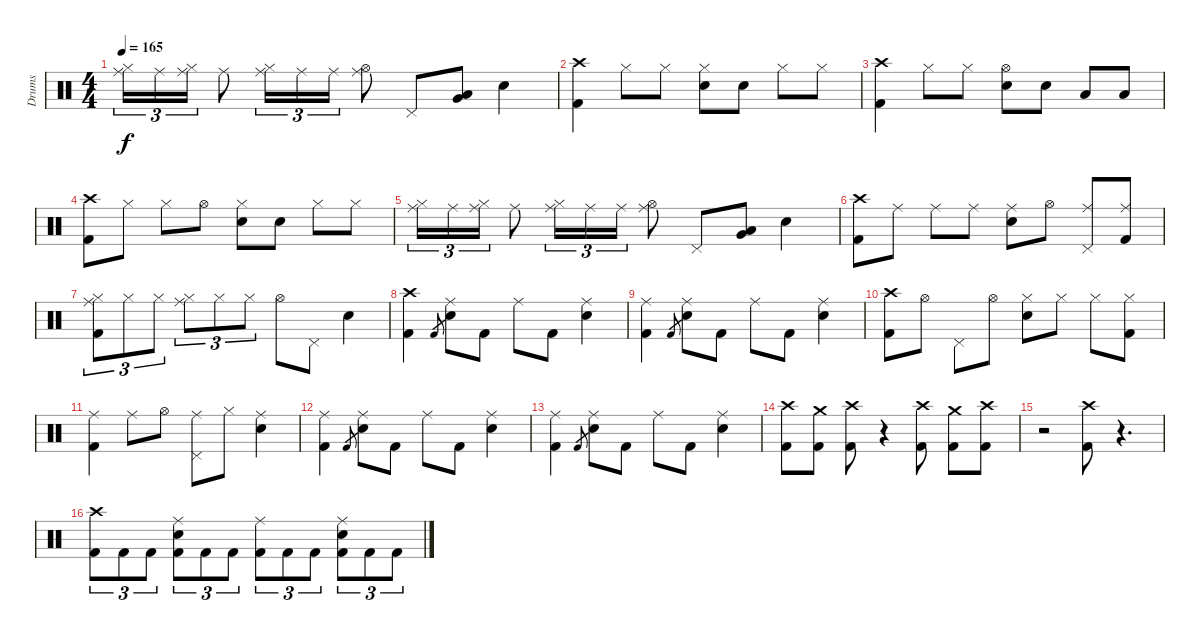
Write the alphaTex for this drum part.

\track ("Drums" "Drums") {instrument percussion}
\staff {score}
\articulation defaults
\ts (4 4)
\tempo 165
\clef neutral
\ks c
("Ride (middle)" "Hi-Hat (closed)").16{tu (3 2) dy f} "Ride (middle)".16{tu (3 2)} ("Ride (middle)" "Hi-Hat (closed)").16{tu (3 2)} "Ride (middle)".8 ("Ride (middle)" "Hi-Hat (closed)").16{tu (3 2)} "Ride (middle)".16{tu (3 2)} "Ride (middle)".16{tu (3 2)} ("Ride (middle)" "Hi-Hat (open)").8 "Pedal Hi-Hat (hit)".8 ("Low Floor Tom (hit)" "Very Low Tom (hit)").8 "Electric Snare (hit)".4 |
("Crash high (hit)" "Kick (hit) 2").4 "Hi-Hat (closed)".8 "Hi-Hat (closed)".8 ("Hi-Hat (closed)" "Electric Snare (hit)").8 "Electric Snare (hit)".8 "Hi-Hat (closed)".8 "Hi-Hat (closed)".8 |
("Crash high (hit)" "Kick (hit) 2").4 "Hi-Hat (closed)".8 "Hi-Hat (closed)".8 ("Hi-Hat (open)" "Electric Snare (hit)").8 "Electric Snare (hit)".8 "Low Tom (hit)".8 "Low Floor Tom (hit)".8 |
("Crash high (hit)" "Kick (hit) 2").8 "Hi-Hat (closed)".8 "Hi-Hat (closed)".8 "Hi-Hat (open)".8 ("Hi-Hat (closed)" "Electric Snare (hit)").8 "Electric Snare (hit)".8 "Hi-Hat (closed)".8 "Hi-Hat (closed)".8 |
("Ride (middle)" "Hi-Hat (closed)").16{tu (3 2)} "Ride (middle)".16{tu (3 2)} ("Ride (middle)" "Hi-Hat (closed)").16{tu (3 2)} "Ride (middle)".8 ("Ride (middle)" "Hi-Hat (closed)").16{tu (3 2)} "Ride (middle)".16{tu (3 2)} "Ride (middle)".16{tu (3 2)} ("Ride (middle)" "Hi-Hat (open)").8 "Pedal Hi-Hat (hit)".8 ("Low Floor Tom (hit)" "Very Low Tom (hit)").8 "Electric Snare (hit)".4 |
("Crash high (hit)" "Kick (hit) 2").8 "Ride (middle)".8 "Ride (middle)".8 "Ride (middle)".8 ("Ride (middle)" "Electric Snare (hit)").8 "Hi-Hat (open)".8 ("Ride (middle)" "Pedal Hi-Hat (hit)").8 ("Ride (middle)" "Kick (hit) 2").8 |
("Hi-Hat (closed)" "Ride (middle)" "Kick (hit) 2").8{tu (3 2)} "Hi-Hat (closed)".8{tu (3 2)} "Hi-Hat (closed)".8{tu (3 2)} ("Hi-Hat (closed)" "Ride (middle)").8{tu (3 2)} "Hi-Hat (closed)".8{tu (3 2)} "Hi-Hat (closed)".8{tu (3 2)} "Hi-Hat (open)".8 "Pedal Hi-Hat (hit)".8 "Electric Snare (hit)".4 |
("Crash high (hit)" "Kick (hit) 2").4 "Kick (hit) 2".8{gr} ("Ride (middle)" "Electric Snare (hit)").8 "Kick (hit) 2".8 "Ride (middle)".8 "Kick (hit) 2".8 ("Ride (middle)" "Electric Snare (hit)").4 |
("Ride (middle)" "Kick (hit) 2").4 "Kick (hit) 2".8{gr} ("Ride (middle)" "Electric Snare (hit)").8 "Kick (hit) 2".8 "Ride (middle)".8 "Kick (hit) 2".8 ("Ride (middle)" "Electric Snare (hit)").4 |
("Crash high (hit)" "Kick (hit) 2").8 "Hi-Hat (open)".8 "Pedal Hi-Hat (hit)".8 "Hi-Hat (open)".8 ("Hi-Hat (closed)" "Electric Snare (hit)").8 "Hi-Hat (closed)".8 "Hi-Hat (closed)".8 ("Hi-Hat (closed)" "Kick (hit) 2").8 |
("Ride (middle)" "Kick (hit) 2").4 "Ride (middle)".8 "Hi-Hat (open)".8 ("Ride (middle)" "Pedal Hi-Hat (hit)").8 "Hi-Hat (closed)".8 ("Ride (middle)" "Electric Snare (hit)").4 |
("Ride (middle)" "Kick (hit) 2").4 "Kick (hit) 2".8{gr} ("Ride (middle)" "Electric Snare (hit)").8 "Kick (hit) 2".8 "Ride (middle)".8 "Kick (hit) 2".8 ("Ride (middle)" "Electric Snare (hit)").4 |
("Ride (middle)" "Kick (hit) 2").4 "Kick (hit) 2".8{gr} ("Ride (middle)" "Electric Snare (hit)").8 "Kick (hit) 2".8 "Ride (middle)".8 "Kick (hit) 2".8 ("Ride (middle)" "Electric Snare (hit)").4 |
("Crash high (hit)" "Kick (hit) 2").8 ("Crash medium (hit)" "Kick (hit) 2").8 ("Crash high (hit)" "Kick (hit) 2").8 r.4{volume 0} ("Crash high (hit)" "Kick (hit) 2").8{volume 13} ("Crash medium (hit)" "Kick (hit) 2").8 ("Crash high (hit)" "Kick (hit) 2").8 |
r.2{volume 0} ("Crash high (hit)" "Kick (hit) 2").8{volume 13} r.4{d volume 0} |
("Crash high (hit)" "Kick (hit) 2").8{tu (3 2) volume 13} "Kick (hit) 2".8{tu (3 2)} "Kick (hit) 2".8{tu (3 2)} ("Ride (middle)" "Electric Snare (hit)" "Kick (hit) 2").8{tu (3 2)} "Kick (hit) 2".8{tu (3 2)} "Kick (hit) 2".8{tu (3 2)} ("Ride (middle)" "Kick (hit) 2").8{tu (3 2)} "Kick (hit) 2".8{tu (3 2)} "Kick (hit) 2".8{tu (3 2)} ("Ride (middle)" "Electric Snare (hit)" "Kick (hit) 2").8{tu (3 2)} "Kick (hit) 2".8{tu (3 2)} "Kick (hit) 2".8{tu (3 2)}
